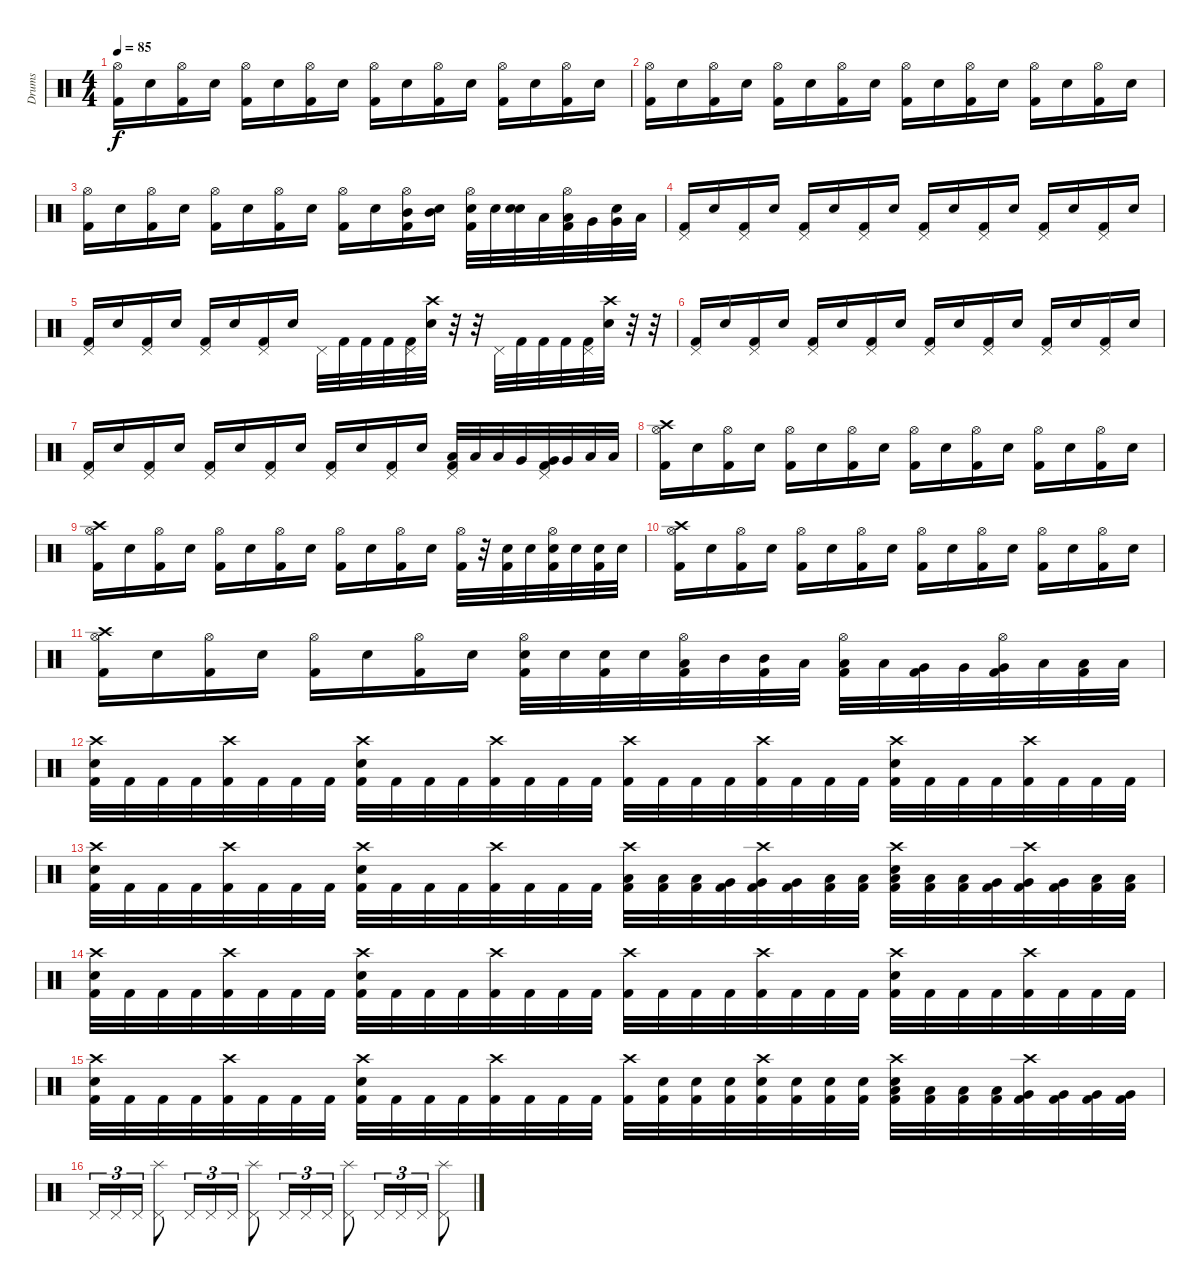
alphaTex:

\track ("Drums" "Drums") {instrument percussion}
\staff {score}
\articulation defaults
\ts (4 4)
\tempo 85
\clef neutral
\ks c
("Hi-Hat (open)" "Kick (hit) 2").16{dy f} "Electric Snare (hit)".16 ("Hi-Hat (open)" "Kick (hit) 2").16 "Electric Snare (hit)".16 ("Hi-Hat (open)" "Kick (hit) 2").16 "Electric Snare (hit)".16 ("Hi-Hat (open)" "Kick (hit) 2").16 "Electric Snare (hit)".16 ("Hi-Hat (open)" "Kick (hit) 2").16 "Electric Snare (hit)".16 ("Hi-Hat (open)" "Kick (hit) 2").16 "Electric Snare (hit)".16 ("Hi-Hat (open)" "Kick (hit) 2").16 "Electric Snare (hit)".16 ("Hi-Hat (open)" "Kick (hit) 2").16 "Electric Snare (hit)".16 |
("Hi-Hat (open)" "Kick (hit) 2").16 "Electric Snare (hit)".16 ("Hi-Hat (open)" "Kick (hit) 2").16 "Electric Snare (hit)".16 ("Hi-Hat (open)" "Kick (hit) 2").16 "Electric Snare (hit)".16 ("Hi-Hat (open)" "Kick (hit) 2").16 "Electric Snare (hit)".16 ("Hi-Hat (open)" "Kick (hit) 2").16 "Electric Snare (hit)".16 ("Hi-Hat (open)" "Kick (hit) 2").16 "Electric Snare (hit)".16 ("Hi-Hat (open)" "Kick (hit) 2").16 "Electric Snare (hit)".16 ("Hi-Hat (open)" "Kick (hit) 2").16 "Electric Snare (hit)".16 |
("Hi-Hat (open)" "Kick (hit) 2").16 "Electric Snare (hit)".16 ("Hi-Hat (open)" "Kick (hit) 2").16 "Electric Snare (hit)".16 ("Hi-Hat (open)" "Kick (hit) 2").16 "Electric Snare (hit)".16 ("Hi-Hat (open)" "Kick (hit) 2").16 "Electric Snare (hit)".16 ("Hi-Hat (open)" "Kick (hit) 2").16 "Electric Snare (hit)".16 ("Hi-Hat (open)" "Mid Tom (hit)" "Kick (hit) 2").16 ("Mid Tom (hit)" "Electric Snare (hit)").16 ("Hi-Hat (open)" "Electric Snare (hit)" "Kick (hit) 2").32 "Electric Snare (hit)".32 ("Electric Snare (hit)" "Electric Snare (hit)").32 "Low Tom (hit)".32 ("Hi-Hat (open)" "Low Tom (hit)" "Kick (hit) 2").32 "Very Low Tom (hit)".32 ("Very Low Tom (hit)" "Electric Snare (hit)").32 "Low Floor Tom (hit)".32 |
("Pedal Hi-Hat (hit)" "Kick (hit) 2").16 "Electric Snare (hit)".16 ("Pedal Hi-Hat (hit)" "Kick (hit) 2").16 "Electric Snare (hit)".16 ("Pedal Hi-Hat (hit)" "Kick (hit) 2").16 "Electric Snare (hit)".16 ("Pedal Hi-Hat (hit)" "Kick (hit) 2").16 "Electric Snare (hit)".16 ("Pedal Hi-Hat (hit)" "Kick (hit) 2").16 "Electric Snare (hit)".16 ("Pedal Hi-Hat (hit)" "Kick (hit) 2").16 "Electric Snare (hit)".16 ("Pedal Hi-Hat (hit)" "Kick (hit) 2").16 "Electric Snare (hit)".16 ("Pedal Hi-Hat (hit)" "Kick (hit) 2").16 "Electric Snare (hit)".16 |
("Pedal Hi-Hat (hit)" "Kick (hit) 2").16 "Electric Snare (hit)".16 ("Pedal Hi-Hat (hit)" "Kick (hit) 2").16 "Electric Snare (hit)".16 ("Pedal Hi-Hat (hit)" "Kick (hit) 2").16 "Electric Snare (hit)".16 ("Pedal Hi-Hat (hit)" "Kick (hit) 2").16 "Electric Snare (hit)".16 "Pedal Hi-Hat (hit)".32 "Kick (hit) 2".32 "Kick (hit) 2".32 "Kick (hit) 2".32 ("Pedal Hi-Hat (hit)" "Kick (hit) 2").32 ("Crash high (hit)" "Electric Snare (hit)").32 r.32 r.32 "Pedal Hi-Hat (hit)".32 "Kick (hit) 2".32 "Kick (hit) 2".32 "Kick (hit) 2".32 ("Pedal Hi-Hat (hit)" "Kick (hit) 2").32 ("Crash high (hit)" "Electric Snare (hit)").32 r.32 r.32 |
("Pedal Hi-Hat (hit)" "Kick (hit) 2").16 "Electric Snare (hit)".16 ("Pedal Hi-Hat (hit)" "Kick (hit) 2").16 "Electric Snare (hit)".16 ("Pedal Hi-Hat (hit)" "Kick (hit) 2").16 "Electric Snare (hit)".16 ("Pedal Hi-Hat (hit)" "Kick (hit) 2").16 "Electric Snare (hit)".16 ("Pedal Hi-Hat (hit)" "Kick (hit) 2").16 "Electric Snare (hit)".16 ("Pedal Hi-Hat (hit)" "Kick (hit) 2").16 "Electric Snare (hit)".16 ("Pedal Hi-Hat (hit)" "Kick (hit) 2").16 "Electric Snare (hit)".16 ("Pedal Hi-Hat (hit)" "Kick (hit) 2").16 "Electric Snare (hit)".16 |
("Pedal Hi-Hat (hit)" "Kick (hit) 2").16 "Electric Snare (hit)".16 ("Pedal Hi-Hat (hit)" "Kick (hit) 2").16 "Electric Snare (hit)".16 ("Pedal Hi-Hat (hit)" "Kick (hit) 2").16 "Electric Snare (hit)".16 ("Pedal Hi-Hat (hit)" "Kick (hit) 2").16 "Electric Snare (hit)".16 ("Pedal Hi-Hat (hit)" "Kick (hit) 2").16 "Electric Snare (hit)".16 ("Pedal Hi-Hat (hit)" "Kick (hit) 2").16 "Electric Snare (hit)".16 ("Pedal Hi-Hat (hit)" "Low Tom (hit)" "Kick (hit) 2").32 "Low Tom (hit)".32 "Low Tom (hit)".32 "Very Low Tom (hit)".32 ("Pedal Hi-Hat (hit)" "Very Low Tom (hit)" "Kick (hit) 2").32 "Very Low Tom (hit)".32 "Low Floor Tom (hit)".32 "Low Floor Tom (hit)".32 |
("Hi-Hat (open)" "Crash high (hit)" "Kick (hit) 2").16 "Electric Snare (hit)".16 ("Hi-Hat (open)" "Kick (hit) 2").16 "Electric Snare (hit)".16 ("Hi-Hat (open)" "Kick (hit) 2").16 "Electric Snare (hit)".16 ("Hi-Hat (open)" "Kick (hit) 2").16 "Electric Snare (hit)".16 ("Hi-Hat (open)" "Kick (hit) 2").16 "Electric Snare (hit)".16 ("Hi-Hat (open)" "Kick (hit) 2").16 "Electric Snare (hit)".16 ("Hi-Hat (open)" "Kick (hit) 2").16 "Electric Snare (hit)".16 ("Hi-Hat (open)" "Kick (hit) 2").16 "Electric Snare (hit)".16 |
("Hi-Hat (open)" "Crash high (hit)" "Kick (hit) 2").16 "Electric Snare (hit)".16 ("Hi-Hat (open)" "Kick (hit) 2").16 "Electric Snare (hit)".16 ("Hi-Hat (open)" "Kick (hit) 2").16 "Electric Snare (hit)".16 ("Hi-Hat (open)" "Kick (hit) 2").16 "Electric Snare (hit)".16 ("Hi-Hat (open)" "Kick (hit) 2").16 "Electric Snare (hit)".16 ("Hi-Hat (open)" "Kick (hit) 2").16 "Electric Snare (hit)".16 ("Hi-Hat (open)" "Kick (hit) 2").32 r.32 ("Electric Snare (hit)" "Kick (hit) 2").32 "Electric Snare (hit)".32 ("Hi-Hat (open)" "Electric Snare (hit)" "Kick (hit) 2").32 "Electric Snare (hit)".32 ("Electric Snare (hit)" "Kick (hit) 2").32 "Electric Snare (hit)".32 |
("Hi-Hat (open)" "Crash high (hit)" "Kick (hit) 2").16 "Electric Snare (hit)".16 ("Hi-Hat (open)" "Kick (hit) 2").16 "Electric Snare (hit)".16 ("Hi-Hat (open)" "Kick (hit) 2").16 "Electric Snare (hit)".16 ("Hi-Hat (open)" "Kick (hit) 2").16 "Electric Snare (hit)".16 ("Hi-Hat (open)" "Kick (hit) 2").16 "Electric Snare (hit)".16 ("Hi-Hat (open)" "Kick (hit) 2").16 "Electric Snare (hit)".16 ("Hi-Hat (open)" "Kick (hit) 2").16 "Electric Snare (hit)".16 ("Hi-Hat (open)" "Kick (hit) 2").16 "Electric Snare (hit)".16 |
("Hi-Hat (open)" "Crash high (hit)" "Kick (hit) 2").16 "Electric Snare (hit)".16 ("Hi-Hat (open)" "Kick (hit) 2").16 "Electric Snare (hit)".16 ("Hi-Hat (open)" "Kick (hit) 2").16 "Electric Snare (hit)".16 ("Hi-Hat (open)" "Kick (hit) 2").16 "Electric Snare (hit)".16 ("Hi-Hat (open)" "Electric Snare (hit)" "Kick (hit) 2").32 "Electric Snare (hit)".32 ("Electric Snare (hit)" "Kick (hit) 2").32 "Electric Snare (hit)".32 ("Hi-Hat (open)" "Low Tom (hit)" "Kick (hit) 2").32 "Mid Tom (hit)".32 ("Mid Tom (hit)" "Kick (hit) 2").32 "Low Tom (hit)".32 ("Hi-Hat (open)" "Low Tom (hit)" "Kick (hit) 2").32 "Low Tom (hit)".32 ("Very Low Tom (hit)" "Kick (hit) 2").32 "Very Low Tom (hit)".32 ("Hi-Hat (open)" "Very Low Tom (hit)" "Kick (hit) 2").32 "Low Floor Tom (hit)".32 ("Low Floor Tom (hit)" "Kick (hit) 2").32 "Low Floor Tom (hit)".32 |
("Electric Snare (hit)" "Crash high (hit)" "Kick (hit) 2").32 "Kick (hit) 2".32 "Kick (hit) 2".32 "Kick (hit) 2".32 ("Crash high (hit)" "Kick (hit) 2").32 "Kick (hit) 2".32 "Kick (hit) 2".32 "Kick (hit) 2".32 ("Electric Snare (hit)" "Crash high (hit)" "Kick (hit) 2").32 "Kick (hit) 2".32 "Kick (hit) 2".32 "Kick (hit) 2".32 ("Crash high (hit)" "Kick (hit) 2").32 "Kick (hit) 2".32 "Kick (hit) 2".32 "Kick (hit) 2".32 ("Crash high (hit)" "Kick (hit) 2").32 "Kick (hit) 2".32 "Kick (hit) 2".32 "Kick (hit) 2".32 ("Crash high (hit)" "Kick (hit) 2").32 "Kick (hit) 2".32 "Kick (hit) 2".32 "Kick (hit) 2".32 ("Electric Snare (hit)" "Crash high (hit)" "Kick (hit) 2").32 "Kick (hit) 2".32 "Kick (hit) 2".32 "Kick (hit) 2".32 ("Crash high (hit)" "Kick (hit) 2").32 "Kick (hit) 2".32 "Kick (hit) 2".32 "Kick (hit) 2".32 |
("Electric Snare (hit)" "Crash high (hit)" "Kick (hit) 2").32 "Kick (hit) 2".32 "Kick (hit) 2".32 "Kick (hit) 2".32 ("Crash high (hit)" "Kick (hit) 2").32 "Kick (hit) 2".32 "Kick (hit) 2".32 "Kick (hit) 2".32 ("Electric Snare (hit)" "Crash high (hit)" "Kick (hit) 2").32 "Kick (hit) 2".32 "Kick (hit) 2".32 "Kick (hit) 2".32 ("Crash high (hit)" "Kick (hit) 2").32 "Kick (hit) 2".32 "Kick (hit) 2".32 "Kick (hit) 2".32 ("Low Tom (hit)" "Crash high (hit)" "Kick (hit) 2").32 ("Low Tom (hit)" "Kick (hit) 2").32 ("Low Tom (hit)" "Kick (hit) 2").32 ("Very Low Tom (hit)" "Kick (hit) 2").32 ("Very Low Tom (hit)" "Crash high (hit)" "Kick (hit) 2").32 ("Very Low Tom (hit)" "Kick (hit) 2").32 ("Low Floor Tom (hit)" "Kick (hit) 2").32 ("Low Floor Tom (hit)" "Kick (hit) 2").32 ("Low Tom (hit)" "Electric Snare (hit)" "Crash high (hit)" "Kick (hit) 2").32 ("Low Tom (hit)" "Kick (hit) 2").32 ("Low Tom (hit)" "Kick (hit) 2").32 ("Very Low Tom (hit)" "Kick (hit) 2").32 ("Very Low Tom (hit)" "Crash high (hit)" "Kick (hit) 2").32 ("Very Low Tom (hit)" "Kick (hit) 2").32 ("Low Floor Tom (hit)" "Kick (hit) 2").32 ("Low Floor Tom (hit)" "Kick (hit) 2").32 |
("Electric Snare (hit)" "Crash high (hit)" "Kick (hit) 2").32 "Kick (hit) 2".32 "Kick (hit) 2".32 "Kick (hit) 2".32 ("Crash high (hit)" "Kick (hit) 2").32 "Kick (hit) 2".32 "Kick (hit) 2".32 "Kick (hit) 2".32 ("Electric Snare (hit)" "Crash high (hit)" "Kick (hit) 2").32 "Kick (hit) 2".32 "Kick (hit) 2".32 "Kick (hit) 2".32 ("Crash high (hit)" "Kick (hit) 2").32 "Kick (hit) 2".32 "Kick (hit) 2".32 "Kick (hit) 2".32 ("Crash high (hit)" "Kick (hit) 2").32 "Kick (hit) 2".32 "Kick (hit) 2".32 "Kick (hit) 2".32 ("Crash high (hit)" "Kick (hit) 2").32 "Kick (hit) 2".32 "Kick (hit) 2".32 "Kick (hit) 2".32 ("Electric Snare (hit)" "Crash high (hit)" "Kick (hit) 2").32 "Kick (hit) 2".32 "Kick (hit) 2".32 "Kick (hit) 2".32 ("Crash high (hit)" "Kick (hit) 2").32 "Kick (hit) 2".32 "Kick (hit) 2".32 "Kick (hit) 2".32 |
("Electric Snare (hit)" "Crash high (hit)" "Kick (hit) 2").32 "Kick (hit) 2".32 "Kick (hit) 2".32 "Kick (hit) 2".32 ("Crash high (hit)" "Kick (hit) 2").32 "Kick (hit) 2".32 "Kick (hit) 2".32 "Kick (hit) 2".32 ("Electric Snare (hit)" "Crash high (hit)" "Kick (hit) 2").32 "Kick (hit) 2".32 "Kick (hit) 2".32 "Kick (hit) 2".32 ("Crash high (hit)" "Kick (hit) 2").32 "Kick (hit) 2".32 "Kick (hit) 2".32 "Kick (hit) 2".32 ("Crash high (hit)" "Kick (hit) 2").32 ("Electric Snare (hit)" "Kick (hit) 2").32 ("Electric Snare (hit)" "Kick (hit) 2").32 ("Electric Snare (hit)" "Kick (hit) 2").32 ("Crash high (hit)" "Electric Snare (hit)" "Kick (hit) 2").32 ("Electric Snare (hit)" "Kick (hit) 2").32 ("Electric Snare (hit)" "Kick (hit) 2").32 ("Electric Snare (hit)" "Kick (hit) 2").32 ("Low Tom (hit)" "Electric Snare (hit)" "Crash high (hit)" "Kick (hit) 2").32 ("Low Tom (hit)" "Kick (hit) 2").32 ("Low Tom (hit)" "Kick (hit) 2").32 ("Low Tom (hit)" "Kick (hit) 2").32 ("Very Low Tom (hit)" "Crash high (hit)" "Kick (hit) 2").32 ("Very Low Tom (hit)" "Kick (hit) 2").32 ("Very Low Tom (hit)" "Kick (hit) 2").32 ("Very Low Tom (hit)" "Kick (hit) 2").32 |
"Pedal Hi-Hat (hit)".16{tu (3 2)} "Pedal Hi-Hat (hit)".16{tu (3 2)} "Pedal Hi-Hat (hit)".16{tu (3 2)} ("Splash (hit)" "Pedal Hi-Hat (hit)").8 "Pedal Hi-Hat (hit)".16{tu (3 2)} "Pedal Hi-Hat (hit)".16{tu (3 2)} "Pedal Hi-Hat (hit)".16{tu (3 2)} ("Splash (hit)" "Pedal Hi-Hat (hit)").8 "Pedal Hi-Hat (hit)".16{tu (3 2)} "Pedal Hi-Hat (hit)".16{tu (3 2)} "Pedal Hi-Hat (hit)".16{tu (3 2)} ("Splash (hit)" "Pedal Hi-Hat (hit)").8 "Pedal Hi-Hat (hit)".16{tu (3 2)} "Pedal Hi-Hat (hit)".16{tu (3 2)} "Pedal Hi-Hat (hit)".16{tu (3 2)} ("Splash (hit)" "Pedal Hi-Hat (hit)").8
